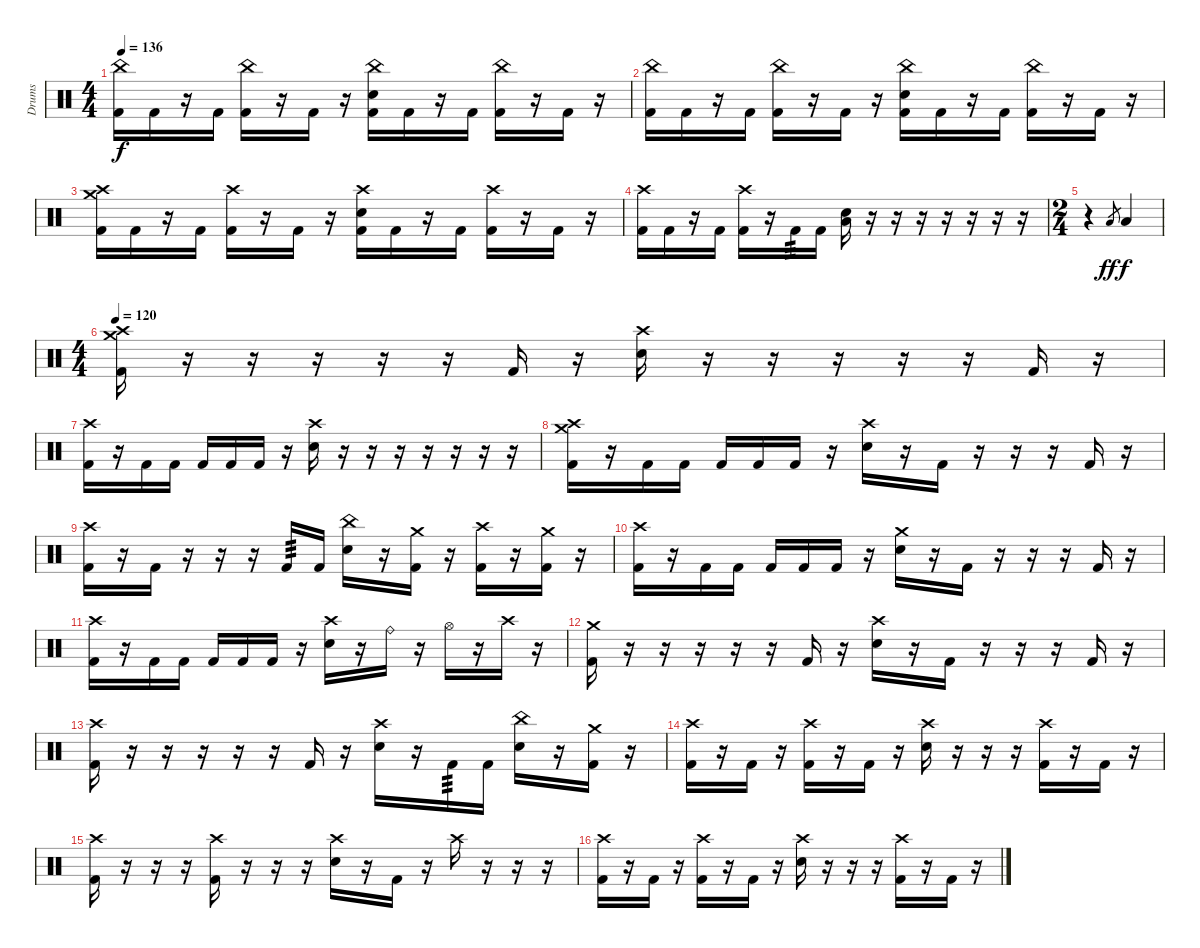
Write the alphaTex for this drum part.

\track ("Drums" "Drums") {instrument percussion}
\staff {score}
\articulation defaults
\ts (4 4)
\tempo 136
\clef neutral
\ks c
("China (hit)" "Kick (hit) 2").16{dy f} "Kick (hit) 2".16 r.16 "Kick (hit) 2".16 ("China (hit)" "Kick (hit) 2").16 r.16 "Kick (hit) 2".16 r.16 ("China (hit)" "Snare (hit) 2" "Kick (hit) 2").16 "Kick (hit) 2".16 r.16 "Kick (hit) 2".16 ("China (hit)" "Kick (hit) 2").16 r.16 "Kick (hit) 2".16 r.16 |
("China (hit)" "Kick (hit) 2").16 "Kick (hit) 2".16 r.16 "Kick (hit) 2".16 ("China (hit)" "Kick (hit) 2").16 r.16 "Kick (hit) 2".16 r.16 ("China (hit)" "Snare (hit) 2" "Kick (hit) 2").16 "Kick (hit) 2".16 r.16 "Kick (hit) 2".16 ("China (hit)" "Kick (hit) 2").16 r.16 "Kick (hit) 2".16 r.16 |
("Crash high (hit)" "Crash medium (hit)" "Kick (hit) 2").16 "Kick (hit) 2".16 r.16 "Kick (hit) 2".16 ("Crash high (hit)" "Kick (hit) 2").16 r.16 "Kick (hit) 2".16 r.16 ("Crash high (hit)" "Snare (hit) 2" "Kick (hit) 2").16 "Kick (hit) 2".16 r.16 "Kick (hit) 2".16 ("Crash high (hit)" "Kick (hit) 2").16 r.16 "Kick (hit) 2".16 r.16 |
("Crash high (hit)" "Kick (hit) 2").16 "Kick (hit) 2".16 r.16 "Kick (hit) 2".16 ("Crash high (hit)" "Kick (hit) 2").16 r.16 "Kick (hit) 2".16{tp 3} "Kick (hit) 2".16 ("Snare (hit) 2" "Low Tom (hit)").16 r.16 r.16 r.16 r.16 r.16 r.16 r.16 |
\ts (2 4)
r.4 "Low Tom (hit)".8{gr dy ff} "Low Tom (hit)".4{dy f} |
\ts (4 4)
\tempo 120
("Crash medium (hit)" "Crash high (hit)" "Kick (hit) 2").16 r.16 r.16 r.16 r.16 r.16 "Kick (hit) 2".16 r.16 ("Crash high (hit)" "Snare (hit) 2").16 r.16 r.16 r.16 r.16 r.16 "Kick (hit) 2".16 r.16 |
("Crash high (hit)" "Kick (hit) 2").16 r.16 "Kick (hit) 2".16 "Kick (hit) 2".16 "Kick (hit) 2".16 "Kick (hit) 2".16 "Kick (hit) 2".16 r.16 ("Crash high (hit)" "Snare (hit) 2").16 r.16 r.16 r.16 r.16 r.16 r.16 r.16 |
("Crash medium (hit)" "Crash high (hit)" "Kick (hit) 2").16 r.16 "Kick (hit) 2".16 "Kick (hit) 2".16 "Kick (hit) 2".16 "Kick (hit) 2".16 "Kick (hit) 2".16 r.16 ("Crash high (hit)" "Snare (hit) 2").16 r.16 "Kick (hit) 2".16 r.16 r.16 r.16 "Kick (hit) 2".16 r.16 |
("Crash high (hit)" "Kick (hit) 2").16 r.16 "Kick (hit) 2".16 r.16 r.16 r.16 "Kick (hit) 2".16{tp 3} "Kick (hit) 2".16 ("China (hit)" "Snare (hit) 2").16 r.16 ("Crash medium (hit)" "Kick (hit) 2").16 r.16 ("Crash high (hit)" "Kick (hit) 2").16 r.16 ("Crash medium (hit)" "Kick (hit) 2").16 r.16 |
("Crash high (hit)" "Kick (hit) 2").16 r.16 "Kick (hit) 2".16 "Kick (hit) 2".16 "Kick (hit) 2".16 "Kick (hit) 2".16 "Kick (hit) 2".16 r.16 ("Crash medium (hit)" "Snare (hit) 2").16 r.16 "Kick (hit) 2".16 r.16 r.16 r.16 "Kick (hit) 2".16 r.16 |
("Crash high (hit)" "Kick (hit) 2").16 r.16 "Kick (hit) 2".16 "Kick (hit) 2".16 "Kick (hit) 2".16 "Kick (hit) 2".16 "Kick (hit) 2".16 r.16 ("Crash high (hit)" "Snare (hit) 2").16 r.16 "Ride (bell)".16 r.16 "Hi-Hat (open)".16 r.16 "Crash high (hit)".16 r.16 |
("Crash medium (hit)" "Kick (hit) 2").16 r.16 r.16 r.16 r.16 r.16 "Kick (hit) 2".16 r.16 ("Crash high (hit)" "Snare (hit) 2").16 r.16 "Kick (hit) 2".16 r.16 r.16 r.16 "Kick (hit) 2".16 r.16 |
("Crash high (hit)" "Kick (hit) 2").16 r.16 r.16 r.16 r.16 r.16 "Kick (hit) 2".16 r.16 ("Crash high (hit)" "Snare (hit) 2").16 r.16 "Kick (hit) 2".16{tp 3} "Kick (hit) 2".16 ("China (hit)" "Snare (hit) 2").16 r.16 ("Crash medium (hit)" "Kick (hit) 2").16 r.16 |
("Crash high (hit)" "Kick (hit) 2").16 r.16 "Kick (hit) 2".16 r.16 ("Crash high (hit)" "Kick (hit) 2").16 r.16 "Kick (hit) 2".16 r.16 ("Crash high (hit)" "Snare (hit) 2").16 r.16 r.16 r.16 ("Crash high (hit)" "Kick (hit) 2").16 r.16 "Kick (hit) 2".16 r.16 |
("Crash high (hit)" "Kick (hit) 2").16 r.16 r.16 r.16 ("Crash high (hit)" "Kick (hit) 2").16 r.16 r.16 r.16 ("Crash high (hit)" "Snare (hit) 2").16 r.16 "Kick (hit) 2".16 r.16 "Crash high (hit)".16 r.16 r.16 r.16 |
("Crash high (hit)" "Kick (hit) 2").16 r.16 "Kick (hit) 2".16 r.16 ("Crash high (hit)" "Kick (hit) 2").16 r.16 "Kick (hit) 2".16 r.16 ("Crash high (hit)" "Snare (hit) 2").16 r.16 r.16 r.16 ("Crash high (hit)" "Kick (hit) 2").16 r.16 "Kick (hit) 2".16 r.16
